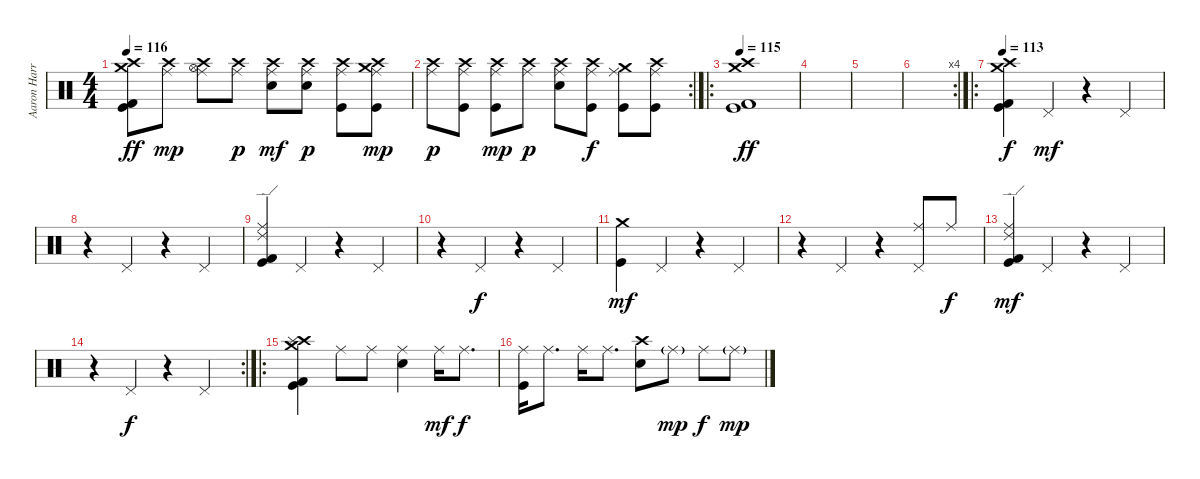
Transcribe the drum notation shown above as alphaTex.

\track ("Aaron Harris" "Aaron Harr") {instrument percussion}
\staff {score}
\articulation defaults
\ts (4 4)
\tempo 116
\clef neutral
\ks c
("Crash medium (hit)" "Crash high (hit)" "Kick (hit) 2" "Kick (hit)").8{dy ff} ("Crash high (hit)" "Ride (middle)").8{dy mp} ("Crash high (hit)" "Hi-Hat (open)" "Ride (middle)").8 ("Crash high (hit)" "Ride (middle)").8{dy p} ("Crash high (hit)" "Ride (middle)" "Electric Snare (hit)").8{dy mf} ("Crash high (hit)" "Ride (middle)" "Electric Snare (hit)").8{dy p} ("Crash high (hit)" "Ride (middle)" "Kick (hit)").8 ("Crash medium (hit)" "Crash high (hit)" "Ride (middle)" "Kick (hit)").8{dy mp} |
\rc 2
("Crash high (hit)" "Ride (middle)").8{dy p} ("Crash high (hit)" "Ride (middle)" "Kick (hit)").8 ("Crash high (hit)" "Ride (middle)" "Kick (hit)").8{dy mp} ("Crash high (hit)" "Ride (middle)").8{dy p} ("Crash high (hit)" "Ride (middle)" "Electric Snare (hit)").8 ("Crash high (hit)" "Ride (middle)" "Kick (hit)").8{dy f} ("Crash medium (hit)" "Ride (middle)" "Kick (hit)").8 ("Crash high (hit)" "Ride (middle)" "Kick (hit)").8 |
\ro
\tempo 115
("Crash medium (hit)" "Crash high (hit)" "Kick (hit) 2" "Kick (hit)").1{dy ff} |
|
|
\rc 4
|
\ro
\tempo 113
("Crash medium (hit)" "Crash high (hit)" "Kick (hit) 2" "Kick (hit)").4{dy f} "Pedal Hi-Hat (hit)".4{dy mf} r.4 "Pedal Hi-Hat (hit)".4 |
r.4 "Pedal Hi-Hat (hit)".4 r.4 "Pedal Hi-Hat (hit)".4 |
("Ride (middle)" "Ride (edge) 2" "Kick (hit) 2" "Kick (hit)").4 "Pedal Hi-Hat (hit)".4 r.4 "Pedal Hi-Hat (hit)".4 |
r.4 "Pedal Hi-Hat (hit)".4{dy f} r.4 "Pedal Hi-Hat (hit)".4 |
("Crash medium (hit)" "Kick (hit)").4{dy mf} "Pedal Hi-Hat (hit)".4 r.4 "Pedal Hi-Hat (hit)".4 |
r.4 "Pedal Hi-Hat (hit)".4 r.4 ("Ride (middle)" "Pedal Hi-Hat (hit)").8 "Ride (middle)".8{dy f} |
("Ride (middle)" "Ride (edge) 2" "Kick (hit) 2" "Kick (hit)").4{dy mf} "Pedal Hi-Hat (hit)".4 r.4 "Pedal Hi-Hat (hit)".4 |
\rc 2
r.4 "Pedal Hi-Hat (hit)".4{dy f} r.4 "Pedal Hi-Hat (hit)".4 |
\ro
("Crash medium (hit)" "Crash high (hit)" "Splash (hit)" "Kick (hit) 2" "Kick (hit)").4 "Ride (middle)".8 "Ride (middle)".8 ("Ride (middle)" "Electric Snare (hit)").4 "Ride (middle)".16{dy mf} "Ride (middle)".8{d dy f} |
("Ride (middle)" "Kick (hit)").16 "Ride (middle)".8{d} "Ride (middle)".16 "Ride (middle)".8{d} ("Crash high (hit)" "Electric Snare (hit)").8 "Ride (middle)"{g}.8{dy mp} "Ride (middle)".8{dy f} "Ride (middle)"{g}.8{dy mp}
